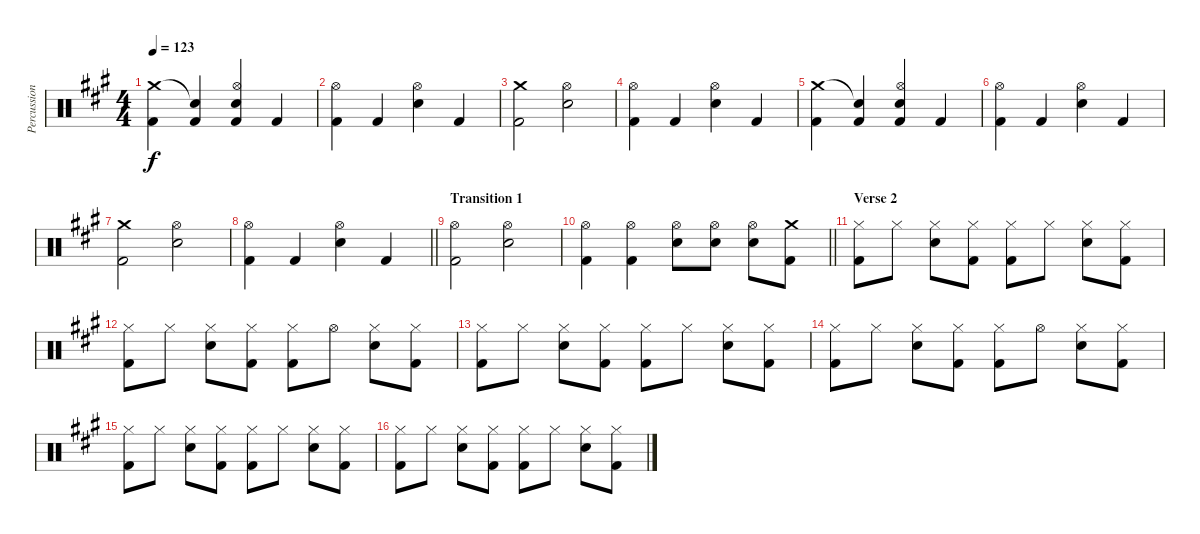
\track ("Percussion" "Percussion") {instrument percussion}
\staff {score}
\articulation defaults
\ts (4 4)
\tempo 123
\clef neutral
\ks a
("Crash medium (hit)" "Kick (hit) 2").4{dy f} ("Snare (hit)"{t} "Kick (hit) 2").4 ("Hi-Hat (open)" "Electric Snare (hit)" "Kick (hit) 2").4 "Kick (hit) 2".4 |
("Hi-Hat (open)" "Kick (hit) 2").4 "Kick (hit) 2".4 ("Hi-Hat (open)" "Electric Snare (hit)").4 "Kick (hit) 2".4 |
("Crash medium (hit)" "Kick (hit) 2").2 ("Hi-Hat (open)" "Electric Snare (hit)").2 |
("Hi-Hat (open)" "Kick (hit) 2").4 "Kick (hit) 2".4 ("Hi-Hat (open)" "Electric Snare (hit)").4 "Kick (hit) 2".4 |
("Crash medium (hit)" "Kick (hit) 2").4 ("Snare (hit)"{t} "Kick (hit) 2").4 ("Hi-Hat (open)" "Electric Snare (hit)" "Kick (hit) 2").4 "Kick (hit) 2".4 |
("Hi-Hat (open)" "Kick (hit) 2").4 "Kick (hit) 2".4 ("Hi-Hat (open)" "Electric Snare (hit)").4 "Kick (hit) 2".4 |
("Crash medium (hit)" "Kick (hit) 2").2 ("Hi-Hat (open)" "Electric Snare (hit)").2 |
\barLineRight lightlight
("Hi-Hat (open)" "Kick (hit) 2").4 "Kick (hit) 2".4 ("Hi-Hat (open)" "Electric Snare (hit)").4 "Kick (hit) 2".4 |
\section ("" "Transition 1")
("Hi-Hat (open)" "Kick (hit) 2").2 ("Hi-Hat (open)" "Electric Snare (hit)").2 |
\barLineRight lightlight
("Hi-Hat (open)" "Kick (hit) 2").4 ("Hi-Hat (open)" "Kick (hit) 2").4 ("Hi-Hat (open)" "Electric Snare (hit)").8 ("Hi-Hat (open)" "Electric Snare (hit)").8 ("Hi-Hat (open)" "Electric Snare (hit)").8 ("Crash medium (hit)" "Kick (hit) 2").8 |
\section ("" "Verse 2")
("Hi-Hat (closed)" "Kick (hit) 2").8 "Hi-Hat (closed)".8 ("Hi-Hat (closed)" "Electric Snare (hit)").8 ("Hi-Hat (closed)" "Kick (hit) 2").8 ("Hi-Hat (closed)" "Kick (hit) 2").8 "Hi-Hat (closed)".8 ("Hi-Hat (closed)" "Electric Snare (hit)").8 ("Hi-Hat (closed)" "Kick (hit) 2").8 |
("Hi-Hat (closed)" "Kick (hit) 2").8 "Hi-Hat (closed)".8 ("Hi-Hat (closed)" "Electric Snare (hit)").8 ("Hi-Hat (closed)" "Kick (hit) 2").8 ("Hi-Hat (closed)" "Kick (hit) 2").8 "Hi-Hat (open)".8 ("Hi-Hat (closed)" "Electric Snare (hit)").8 ("Hi-Hat (closed)" "Kick (hit) 2").8 |
("Hi-Hat (closed)" "Kick (hit) 2").8 "Hi-Hat (closed)".8 ("Hi-Hat (closed)" "Electric Snare (hit)").8 ("Hi-Hat (closed)" "Kick (hit) 2").8 ("Hi-Hat (closed)" "Kick (hit) 2").8 "Hi-Hat (closed)".8 ("Hi-Hat (closed)" "Electric Snare (hit)").8 ("Hi-Hat (closed)" "Kick (hit) 2").8 |
("Hi-Hat (closed)" "Kick (hit) 2").8 "Hi-Hat (closed)".8 ("Hi-Hat (closed)" "Electric Snare (hit)").8 ("Hi-Hat (closed)" "Kick (hit) 2").8 ("Hi-Hat (closed)" "Kick (hit) 2").8 "Hi-Hat (open)".8 ("Hi-Hat (closed)" "Electric Snare (hit)").8 ("Hi-Hat (closed)" "Kick (hit) 2").8 |
("Hi-Hat (closed)" "Kick (hit) 2").8 "Hi-Hat (closed)".8 ("Hi-Hat (closed)" "Electric Snare (hit)").8 ("Hi-Hat (closed)" "Kick (hit) 2").8 ("Hi-Hat (closed)" "Kick (hit) 2").8 "Hi-Hat (closed)".8 ("Hi-Hat (closed)" "Electric Snare (hit)").8 ("Hi-Hat (closed)" "Kick (hit) 2").8 |
("Hi-Hat (closed)" "Kick (hit) 2").8 "Hi-Hat (closed)".8 ("Hi-Hat (closed)" "Electric Snare (hit)").8 ("Hi-Hat (closed)" "Kick (hit) 2").8 ("Hi-Hat (closed)" "Kick (hit) 2").8 "Hi-Hat (closed)".8 ("Hi-Hat (closed)" "Electric Snare (hit)").8 ("Hi-Hat (closed)" "Kick (hit) 2").8
